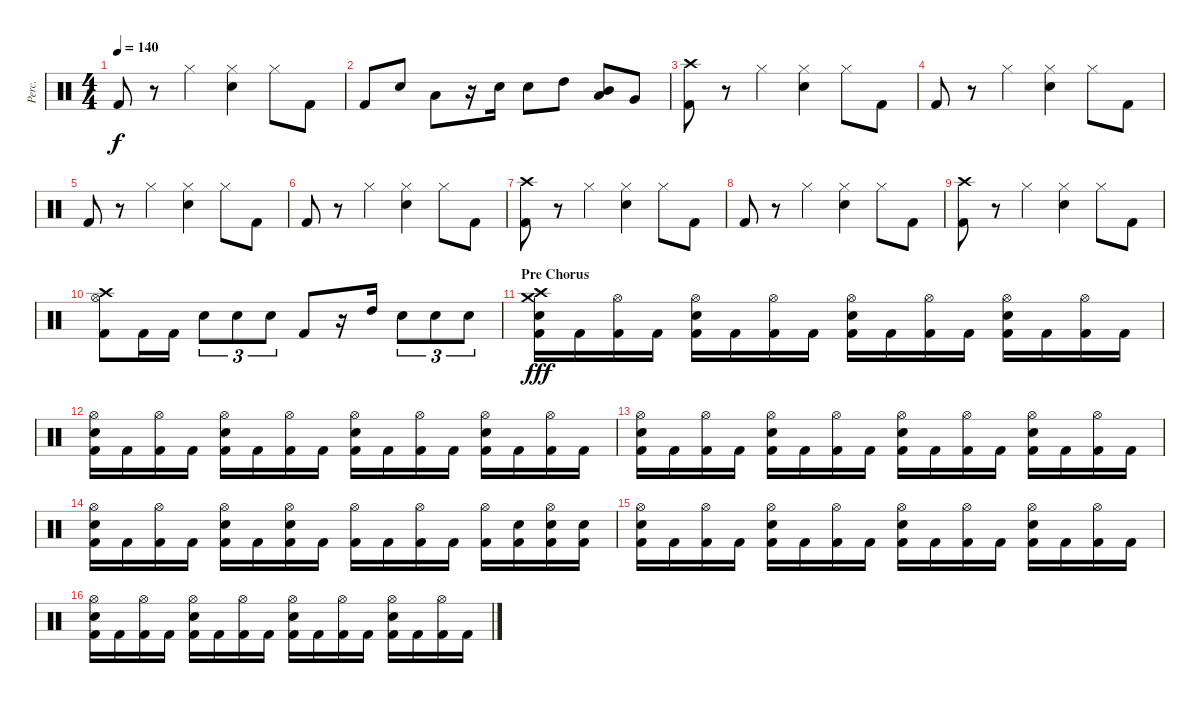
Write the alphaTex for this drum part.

\track ("Perc." "Perc.") {instrument percussion}
\staff {score}
\articulation defaults
\ts (4 4)
\tempo 140
\clef neutral
\ks c "Kick (hit) 2".8{dy f}
r.8 "Hi-Hat (closed)".4 ("Electric Snare (hit)" "Hi-Hat (closed)").4 "Hi-Hat (closed)".8 "Kick (hit) 2".8 |
"Kick (hit) 2".8 "Electric Snare (hit)".8 "Low Tom (hit)".8 r.16 "Electric Snare (hit)".16 "Electric Snare (hit)".8 "High Tom (hit)".8 ("Low Tom (hit)" "Mid Tom (hit)").8 "Very Low Tom (hit)".8 |
("Crash high (hit)" "Kick (hit) 2").8 r.8 "Hi-Hat (closed)".4 ("Electric Snare (hit)" "Hi-Hat (closed)").4 "Hi-Hat (closed)".8 "Kick (hit) 2".8 |
"Kick (hit) 2".8 r.8 "Hi-Hat (closed)".4 ("Electric Snare (hit)" "Hi-Hat (closed)").4 "Hi-Hat (closed)".8 "Kick (hit) 2".8 |
"Kick (hit) 2".8 r.8 "Hi-Hat (closed)".4 ("Electric Snare (hit)" "Hi-Hat (closed)").4 "Hi-Hat (closed)".8 "Kick (hit) 2".8 |
"Kick (hit) 2".8 r.8 "Hi-Hat (closed)".4 ("Electric Snare (hit)" "Hi-Hat (closed)").4 "Hi-Hat (closed)".8 "Kick (hit) 2".8 |
("Crash high (hit)" "Kick (hit) 2").8 r.8 "Hi-Hat (closed)".4 ("Electric Snare (hit)" "Hi-Hat (closed)").4 "Hi-Hat (closed)".8 "Kick (hit) 2".8 |
"Kick (hit) 2".8 r.8 "Hi-Hat (closed)".4 ("Electric Snare (hit)" "Hi-Hat (closed)").4 "Hi-Hat (closed)".8 "Kick (hit) 2".8 |
("Crash high (hit)" "Kick (hit) 2").8 r.8 "Hi-Hat (closed)".4 ("Electric Snare (hit)" "Hi-Hat (closed)").4 "Hi-Hat (closed)".8 "Kick (hit) 2".8 |
("Crash high (hit)" "Hi-Hat (open)" "Kick (hit) 2").8 "Kick (hit) 2".16 "Kick (hit) 2".16 "Electric Snare (hit)".8{tu (3 2)} "Electric Snare (hit)".8{tu (3 2)} "Electric Snare (hit)".8{tu (3 2)} "Kick (hit) 2".8 r.16 "High Tom (hit)".16 "Electric Snare (hit)".8{tu (3 2)} "Electric Snare (hit)".8{tu (3 2)} "Electric Snare (hit)".8{tu (3 2)} |
\section ("" "Pre Chorus")
("Crash high (hit)" "Crash medium (hit)" "Electric Snare (hit)" "Kick (hit) 2").16{dy fff} "Kick (hit) 2".16 ("Hi-Hat (open)" "Kick (hit) 2").16 "Kick (hit) 2".16 ("Hi-Hat (open)" "Electric Snare (hit)" "Kick (hit) 2").16 "Kick (hit) 2".16 ("Hi-Hat (open)" "Kick (hit) 2").16 "Kick (hit) 2".16 ("Hi-Hat (open)" "Electric Snare (hit)" "Kick (hit) 2").16 "Kick (hit) 2".16 ("Hi-Hat (open)" "Kick (hit) 2").16 "Kick (hit) 2".16 ("Hi-Hat (open)" "Electric Snare (hit)" "Kick (hit) 2").16 "Kick (hit) 2".16 ("Hi-Hat (open)" "Kick (hit) 2").16 "Kick (hit) 2".16 |
("Hi-Hat (open)" "Electric Snare (hit)" "Kick (hit) 2").16 "Kick (hit) 2".16 ("Hi-Hat (open)" "Kick (hit) 2").16 "Kick (hit) 2".16 ("Hi-Hat (open)" "Electric Snare (hit)" "Kick (hit) 2").16 "Kick (hit) 2".16 ("Hi-Hat (open)" "Kick (hit) 2").16 "Kick (hit) 2".16 ("Hi-Hat (open)" "Electric Snare (hit)" "Kick (hit) 2").16 "Kick (hit) 2".16 ("Hi-Hat (open)" "Kick (hit) 2").16 "Kick (hit) 2".16 ("Hi-Hat (open)" "Electric Snare (hit)" "Kick (hit) 2").16 "Kick (hit) 2".16 ("Hi-Hat (open)" "Kick (hit) 2").16 "Kick (hit) 2".16 |
("Hi-Hat (open)" "Electric Snare (hit)" "Kick (hit) 2").16 "Kick (hit) 2".16 ("Hi-Hat (open)" "Kick (hit) 2").16 "Kick (hit) 2".16 ("Hi-Hat (open)" "Electric Snare (hit)" "Kick (hit) 2").16 "Kick (hit) 2".16 ("Hi-Hat (open)" "Kick (hit) 2").16 "Kick (hit) 2".16 ("Hi-Hat (open)" "Electric Snare (hit)" "Kick (hit) 2").16 "Kick (hit) 2".16 ("Hi-Hat (open)" "Kick (hit) 2").16 "Kick (hit) 2".16 ("Hi-Hat (open)" "Electric Snare (hit)" "Kick (hit) 2").16 "Kick (hit) 2".16 ("Hi-Hat (open)" "Kick (hit) 2").16 "Kick (hit) 2".16 |
("Hi-Hat (open)" "Electric Snare (hit)" "Kick (hit) 2").16 "Kick (hit) 2".16 ("Hi-Hat (open)" "Kick (hit) 2").16 "Kick (hit) 2".16 ("Hi-Hat (open)" "Electric Snare (hit)" "Kick (hit) 2").16 "Kick (hit) 2".16 ("Hi-Hat (open)" "Electric Snare (hit)" "Kick (hit) 2").16 "Kick (hit) 2".16 ("Hi-Hat (open)" "Kick (hit) 2").16 "Kick (hit) 2".16 ("Hi-Hat (open)" "Kick (hit) 2").16 "Kick (hit) 2".16 ("Hi-Hat (open)" "Kick (hit) 2").16 ("Electric Snare (hit)" "Kick (hit) 2").16 ("Hi-Hat (open)" "Electric Snare (hit)" "Kick (hit) 2").16 ("Electric Snare (hit)" "Kick (hit) 2").16 |
("Hi-Hat (open)" "Electric Snare (hit)" "Kick (hit) 2").16 "Kick (hit) 2".16 ("Hi-Hat (open)" "Kick (hit) 2").16 "Kick (hit) 2".16 ("Hi-Hat (open)" "Electric Snare (hit)" "Kick (hit) 2").16 "Kick (hit) 2".16 ("Hi-Hat (open)" "Kick (hit) 2").16 "Kick (hit) 2".16 ("Hi-Hat (open)" "Electric Snare (hit)" "Kick (hit) 2").16 "Kick (hit) 2".16 ("Hi-Hat (open)" "Kick (hit) 2").16 "Kick (hit) 2".16 ("Hi-Hat (open)" "Electric Snare (hit)" "Kick (hit) 2").16 "Kick (hit) 2".16 ("Hi-Hat (open)" "Kick (hit) 2").16 "Kick (hit) 2".16 |
("Hi-Hat (open)" "Electric Snare (hit)" "Kick (hit) 2").16 "Kick (hit) 2".16 ("Hi-Hat (open)" "Kick (hit) 2").16 "Kick (hit) 2".16 ("Hi-Hat (open)" "Electric Snare (hit)" "Kick (hit) 2").16 "Kick (hit) 2".16 ("Hi-Hat (open)" "Kick (hit) 2").16 "Kick (hit) 2".16 ("Hi-Hat (open)" "Electric Snare (hit)" "Kick (hit) 2").16 "Kick (hit) 2".16 ("Hi-Hat (open)" "Kick (hit) 2").16 "Kick (hit) 2".16 ("Hi-Hat (open)" "Electric Snare (hit)" "Kick (hit) 2").16 "Kick (hit) 2".16 ("Hi-Hat (open)" "Kick (hit) 2").16 "Kick (hit) 2".16
